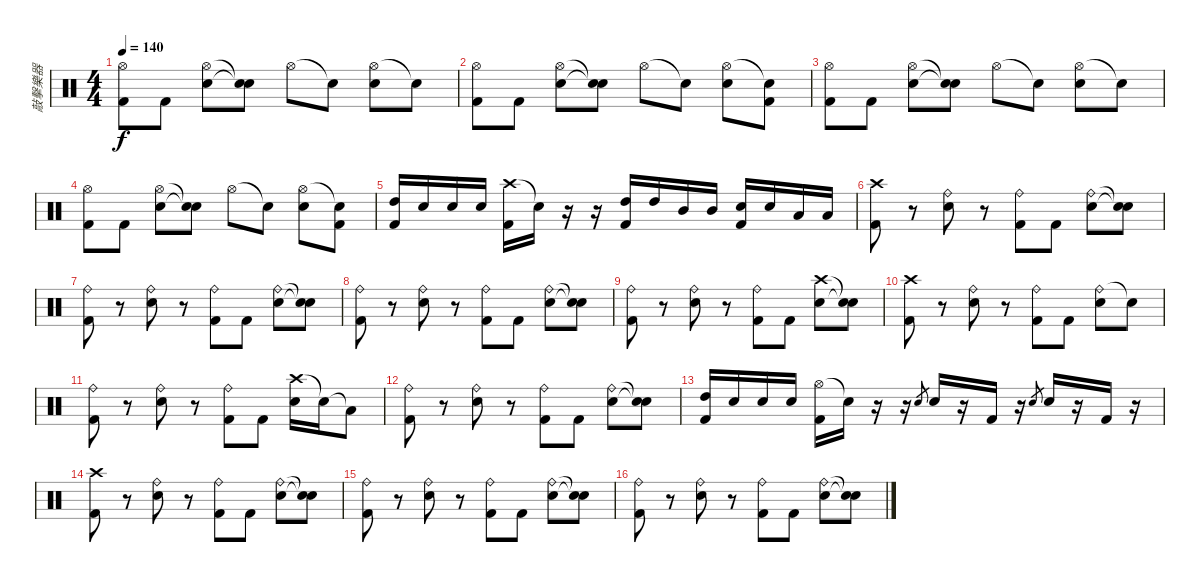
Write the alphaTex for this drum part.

\track ("敲擊樂器" "敲擊樂器") {instrument percussion}
\staff {score}
\articulation defaults
\ts (4 4)
\tempo 140
\clef neutral
\ks c
("Hi-Hat (open)" "Kick (hit) 2").8{dy f} "Kick (hit) 2".8 ("Hi-Hat (open)" "Snare (hit) 2").8 ("Snare (hit)"{t} "Snare (hit)"{t}).8 "Hi-Hat (open)".8 "Snare (hit)"{t}.8 ("Hi-Hat (open)" "Snare (hit) 2").8 "Snare (hit)"{t}.8 |
("Hi-Hat (open)" "Kick (hit) 2").8 "Kick (hit) 2".8 ("Hi-Hat (open)" "Snare (hit) 2").8 ("Snare (hit)"{t} "Snare (hit)"{t}).8 "Hi-Hat (open)".8 "Snare (hit)"{t}.8 ("Hi-Hat (open)" "Snare (hit) 2").8 ("Snare (hit)"{t} "Kick (hit) 2").8 |
("Hi-Hat (open)" "Kick (hit) 2").8 "Kick (hit) 2".8 ("Hi-Hat (open)" "Snare (hit) 2").8 ("Snare (hit)"{t} "Snare (hit)"{t}).8 "Hi-Hat (open)".8 "Snare (hit)"{t}.8 ("Hi-Hat (open)" "Snare (hit) 2").8 "Snare (hit)"{t}.8 |
("Hi-Hat (open)" "Kick (hit) 2").8 "Kick (hit) 2".8 ("Hi-Hat (open)" "Snare (hit) 2").8 ("Snare (hit)"{t} "Snare (hit)"{t}).8 "Hi-Hat (open)".8 "Snare (hit)"{t}.8 ("Hi-Hat (open)" "Snare (hit) 2").8 ("Snare (hit)"{t} "Kick (hit) 2").8 |
("High Tom (hit)" "Kick (hit) 2").16 "Snare (hit) 2".16 "Snare (hit) 2".16 "Snare (hit) 2".16 ("Crash high (hit)" "Kick (hit) 2").16 "Snare (hit)"{t}.16 r.16 r.16 ("High Tom (hit)" "Kick (hit) 2").16 "High Tom (hit)".16 "Mid Tom (hit)".16 "Mid Tom (hit)".16 ("Snare (hit) 2" "Kick (hit) 2").16 "Snare (hit) 2".16 "Low Tom (hit)".16 "Low Tom (hit)".16 |
("Crash high (hit)" "Kick (hit) 2").8 r.8 ("Ride (bell)" "Snare (hit) 2").8 r.8 ("Ride (bell)" "Kick (hit) 2").8 "Kick (hit) 2".8 ("Ride (bell)" "Snare (hit) 2").8 ("Snare (hit)"{t} "Snare (hit)"{t}).8 |
("Ride (bell)" "Kick (hit) 2").8 r.8 ("Ride (bell)" "Snare (hit) 2").8 r.8 ("Ride (bell)" "Kick (hit) 2").8 "Kick (hit) 2".8 ("Ride (bell)" "Snare (hit) 2").8 ("Snare (hit)"{t} "Snare (hit)"{t}).8 |
("Ride (bell)" "Kick (hit) 2").8 r.8 ("Ride (bell)" "Snare (hit) 2").8 r.8 ("Ride (bell)" "Kick (hit) 2").8 "Kick (hit) 2".8 ("Ride (bell)" "Snare (hit) 2").8 ("Snare (hit)"{t} "Snare (hit)"{t}).8 |
("Ride (bell)" "Kick (hit) 2").8 r.8 ("Ride (bell)" "Snare (hit) 2").8 r.8 ("Ride (bell)" "Kick (hit) 2").8 "Kick (hit) 2".8 ("Crash high (hit)" "Snare (hit) 2").8 ("Snare (hit)"{t} "Snare (hit)"{t}).8 |
("Crash high (hit)" "Kick (hit) 2").8 r.8 ("Ride (bell)" "Snare (hit) 2").8 r.8 ("Ride (bell)" "Kick (hit) 2").8 "Kick (hit) 2".8 ("Ride (bell)" "Snare (hit) 2").8 "Snare (hit)"{t}.8 |
("Ride (bell)" "Kick (hit) 2").8 r.8 ("Ride (bell)" "Snare (hit) 2").8 r.8 ("Ride (bell)" "Kick (hit) 2").8 "Kick (hit) 2".8 ("Crash high (hit)" "Snare (hit) 2").16 "Snare (hit) 2"{t}.16 "Low Tom (hit)"{t}.8 |
("Ride (bell)" "Kick (hit) 2").8 r.8 ("Ride (bell)" "Snare (hit) 2").8 r.8 ("Ride (bell)" "Kick (hit) 2").8 "Kick (hit) 2".8 ("Ride (bell)" "Snare (hit) 2").8 ("Snare (hit)"{t} "Snare (hit)"{t}).8 |
("High Tom (hit)" "Kick (hit) 2").16 "Snare (hit) 2".16 "Snare (hit) 2".16 "Snare (hit) 2".16 ("Hi-Hat (open)" "Kick (hit) 2").16 "Snare (hit)"{t}.16 r.16 r.16 "Snare (hit) 2".8{gr} "Snare (hit) 2".16 r.16 "Kick (hit) 2".16 r.16 "Snare (hit) 2".8{gr} "Snare (hit) 2".16 r.16 "Kick (hit) 2".16 r.16 |
("Crash high (hit)" "Kick (hit) 2").8 r.8 ("Ride (bell)" "Snare (hit) 2").8 r.8 ("Ride (bell)" "Kick (hit) 2").8 "Kick (hit) 2".8 ("Ride (bell)" "Snare (hit) 2").8 ("Snare (hit)"{t} "Snare (hit)"{t}).8 |
("Ride (bell)" "Kick (hit) 2").8 r.8 ("Ride (bell)" "Snare (hit) 2").8 r.8 ("Ride (bell)" "Kick (hit) 2").8 "Kick (hit) 2".8 ("Ride (bell)" "Snare (hit) 2").8 ("Snare (hit)"{t} "Snare (hit)"{t}).8 |
("Ride (bell)" "Kick (hit) 2").8 r.8 ("Ride (bell)" "Snare (hit) 2").8 r.8 ("Ride (bell)" "Kick (hit) 2").8 "Kick (hit) 2".8 ("Ride (bell)" "Snare (hit) 2").8 ("Snare (hit)"{t} "Snare (hit)"{t}).8
